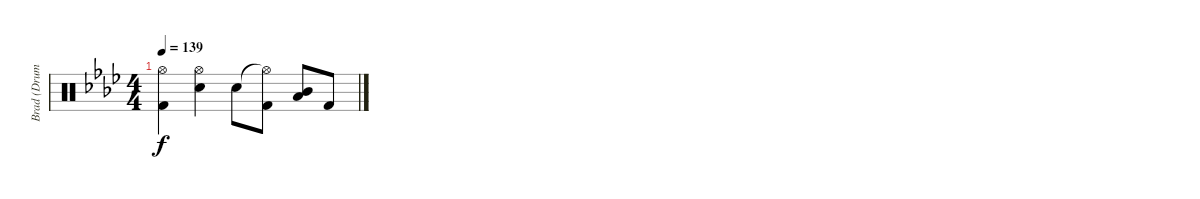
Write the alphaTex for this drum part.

\track ("Brad (Drums)" "Brad (Drum") {instrument percussion}
\staff {score}
\articulation defaults
\ts (4 4)
\tempo 139
\clef neutral
\ks ab
("Hi-Hat (open)" "Kick (hit) 2").4{dy f} ("Hi-Hat (open)" "Snare (hit) 2").4 "Snare (hit) 2".8 ("Hi-Hat (open)"{t} "Kick (hit) 2").8 ("Mid Tom (hit)" "Low Tom (hit)").8 "Kick (hit) 2".8
